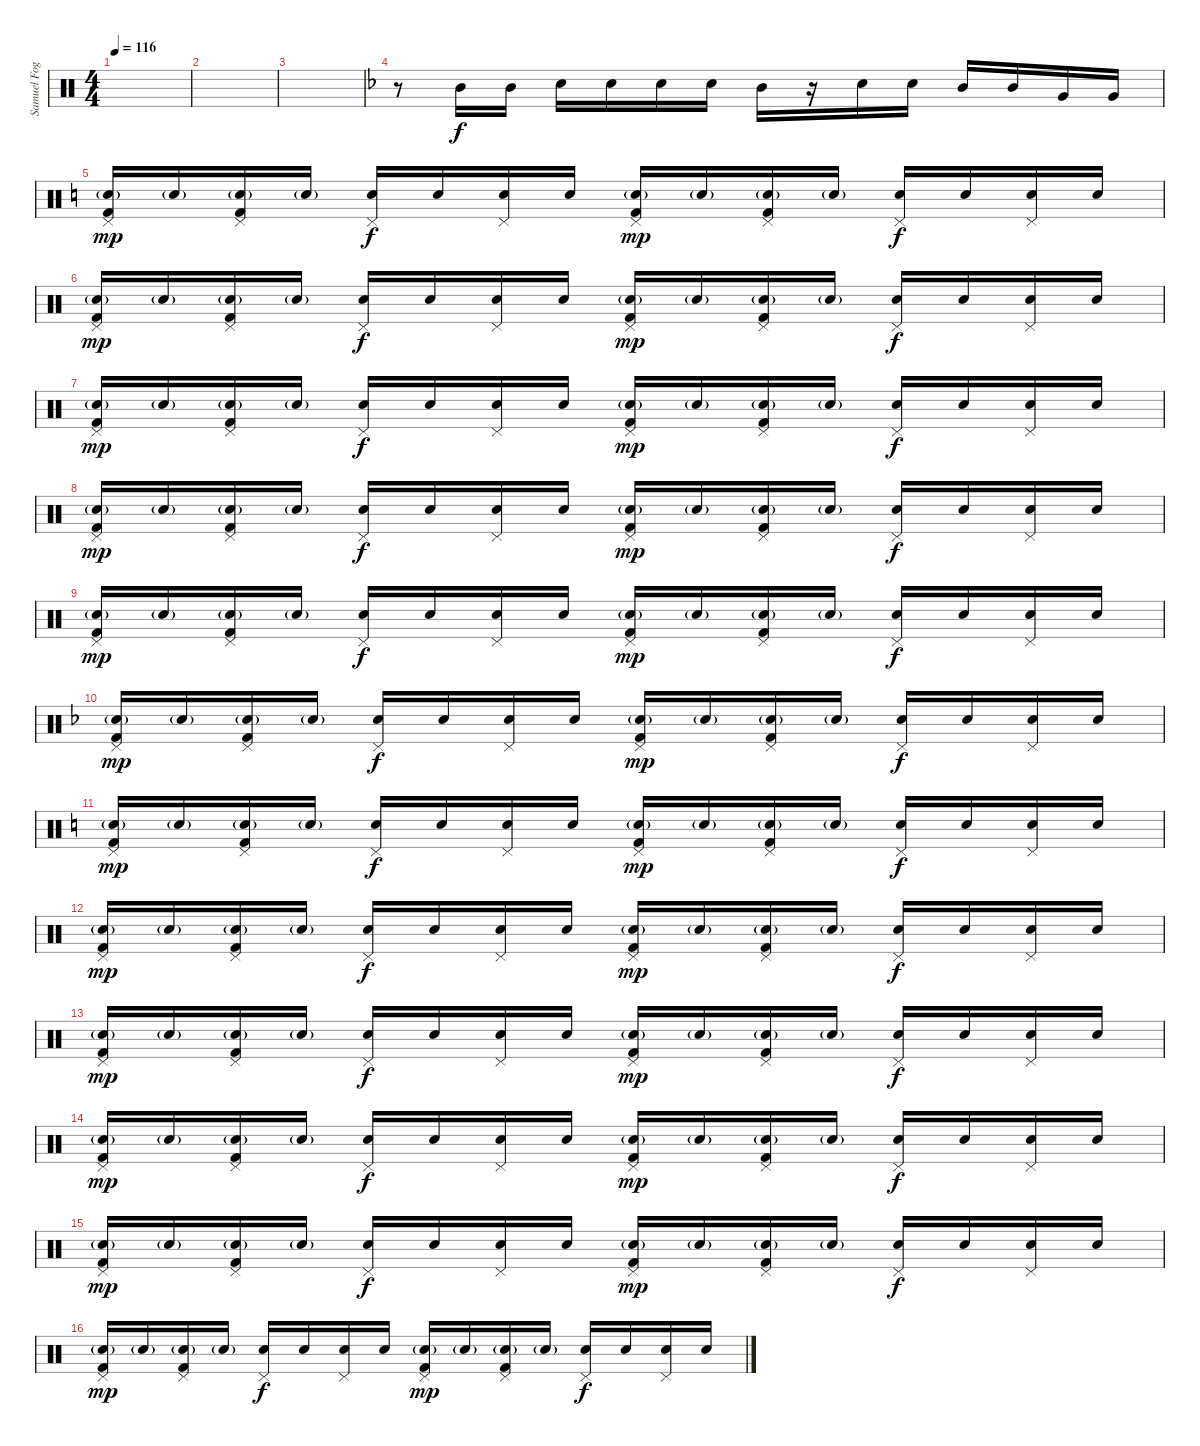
\track ("Samuel Fogarino" "Samuel Fog") {instrument percussion}
\staff {score}
\articulation defaults
\ts (4 4)
\tempo 116
\clef neutral
\ks c
|
|
|
\ks f
r.8 "Mid Tom (hit)".16 "Mid Tom (hit)".16 "Snare (hit) 2".16 "Snare (hit) 2".16 "Snare (hit) 2".16 "Snare (hit) 2".16 "Mid Tom (hit)".16 r.16 "Snare (hit) 2".16 "Snare (hit) 2".16 "Mid Tom (hit)".16 "Mid Tom (hit)".16 "Very Low Tom (hit)".16 "Very Low Tom (hit)".16 |
\ks c
("Pedal Hi-Hat (hit)" "Snare (hit) 2"{g} "Kick (hit) 2").16{dy mp} "Snare (hit) 2"{g}.16 ("Pedal Hi-Hat (hit)" "Snare (hit) 2"{g} "Kick (hit) 2").16 "Snare (hit) 2"{g}.16 ("Pedal Hi-Hat (hit)" "Snare (hit) 2").16{dy f} "Snare (hit) 2".16 ("Pedal Hi-Hat (hit)" "Snare (hit) 2").16 "Snare (hit) 2".16 ("Pedal Hi-Hat (hit)" "Snare (hit) 2"{g} "Kick (hit) 2").16{dy mp} "Snare (hit) 2"{g}.16 ("Pedal Hi-Hat (hit)" "Snare (hit) 2"{g} "Kick (hit) 2").16 "Snare (hit) 2"{g}.16 ("Pedal Hi-Hat (hit)" "Snare (hit) 2").16{dy f} "Snare (hit) 2".16 ("Pedal Hi-Hat (hit)" "Snare (hit) 2").16 "Snare (hit) 2".16 |
("Pedal Hi-Hat (hit)" "Snare (hit) 2"{g} "Kick (hit) 2").16{dy mp} "Snare (hit) 2"{g}.16 ("Pedal Hi-Hat (hit)" "Snare (hit) 2"{g} "Kick (hit) 2").16 "Snare (hit) 2"{g}.16 ("Pedal Hi-Hat (hit)" "Snare (hit) 2").16{dy f} "Snare (hit) 2".16 ("Pedal Hi-Hat (hit)" "Snare (hit) 2").16 "Snare (hit) 2".16 ("Pedal Hi-Hat (hit)" "Snare (hit) 2"{g} "Kick (hit) 2").16{dy mp} "Snare (hit) 2"{g}.16 ("Pedal Hi-Hat (hit)" "Snare (hit) 2"{g} "Kick (hit) 2").16 "Snare (hit) 2"{g}.16 ("Pedal Hi-Hat (hit)" "Snare (hit) 2").16{dy f} "Snare (hit) 2".16 ("Pedal Hi-Hat (hit)" "Snare (hit) 2").16 "Snare (hit) 2".16 |
("Pedal Hi-Hat (hit)" "Snare (hit) 2"{g} "Kick (hit) 2").16{dy mp} "Snare (hit) 2"{g}.16 ("Pedal Hi-Hat (hit)" "Snare (hit) 2"{g} "Kick (hit) 2").16 "Snare (hit) 2"{g}.16 ("Pedal Hi-Hat (hit)" "Snare (hit) 2").16{dy f} "Snare (hit) 2".16 ("Pedal Hi-Hat (hit)" "Snare (hit) 2").16 "Snare (hit) 2".16 ("Pedal Hi-Hat (hit)" "Snare (hit) 2"{g} "Kick (hit) 2").16{dy mp} "Snare (hit) 2"{g}.16 ("Pedal Hi-Hat (hit)" "Snare (hit) 2"{g} "Kick (hit) 2").16 "Snare (hit) 2"{g}.16 ("Pedal Hi-Hat (hit)" "Snare (hit) 2").16{dy f} "Snare (hit) 2".16 ("Pedal Hi-Hat (hit)" "Snare (hit) 2").16 "Snare (hit) 2".16 |
("Pedal Hi-Hat (hit)" "Snare (hit) 2"{g} "Kick (hit) 2").16{dy mp} "Snare (hit) 2"{g}.16 ("Pedal Hi-Hat (hit)" "Snare (hit) 2"{g} "Kick (hit) 2").16 "Snare (hit) 2"{g}.16 ("Pedal Hi-Hat (hit)" "Snare (hit) 2").16{dy f} "Snare (hit) 2".16 ("Pedal Hi-Hat (hit)" "Snare (hit) 2").16 "Snare (hit) 2".16 ("Pedal Hi-Hat (hit)" "Snare (hit) 2"{g} "Kick (hit) 2").16{dy mp} "Snare (hit) 2"{g}.16 ("Pedal Hi-Hat (hit)" "Snare (hit) 2"{g} "Kick (hit) 2").16 "Snare (hit) 2"{g}.16 ("Pedal Hi-Hat (hit)" "Snare (hit) 2").16{dy f} "Snare (hit) 2".16 ("Pedal Hi-Hat (hit)" "Snare (hit) 2").16 "Snare (hit) 2".16 |
("Pedal Hi-Hat (hit)" "Snare (hit) 2"{g} "Kick (hit) 2").16{dy mp} "Snare (hit) 2"{g}.16 ("Pedal Hi-Hat (hit)" "Snare (hit) 2"{g} "Kick (hit) 2").16 "Snare (hit) 2"{g}.16 ("Pedal Hi-Hat (hit)" "Snare (hit) 2").16{dy f} "Snare (hit) 2".16 ("Pedal Hi-Hat (hit)" "Snare (hit) 2").16 "Snare (hit) 2".16 ("Pedal Hi-Hat (hit)" "Snare (hit) 2"{g} "Kick (hit) 2").16{dy mp} "Snare (hit) 2"{g}.16 ("Pedal Hi-Hat (hit)" "Snare (hit) 2"{g} "Kick (hit) 2").16 "Snare (hit) 2"{g}.16 ("Pedal Hi-Hat (hit)" "Snare (hit) 2").16{dy f} "Snare (hit) 2".16 ("Pedal Hi-Hat (hit)" "Snare (hit) 2").16 "Snare (hit) 2".16 |
\ks f
("Pedal Hi-Hat (hit)" "Snare (hit) 2"{g} "Kick (hit) 2").16{dy mp} "Snare (hit) 2"{g}.16 ("Pedal Hi-Hat (hit)" "Snare (hit) 2"{g} "Kick (hit) 2").16 "Snare (hit) 2"{g}.16 ("Pedal Hi-Hat (hit)" "Snare (hit) 2").16{dy f} "Snare (hit) 2".16 ("Pedal Hi-Hat (hit)" "Snare (hit) 2").16 "Snare (hit) 2".16 ("Pedal Hi-Hat (hit)" "Snare (hit) 2"{g} "Kick (hit) 2").16{dy mp} "Snare (hit) 2"{g}.16 ("Pedal Hi-Hat (hit)" "Snare (hit) 2"{g} "Kick (hit) 2").16 "Snare (hit) 2"{g}.16 ("Pedal Hi-Hat (hit)" "Snare (hit) 2").16{dy f} "Snare (hit) 2".16 ("Pedal Hi-Hat (hit)" "Snare (hit) 2").16 "Snare (hit) 2".16 |
\ks c
("Pedal Hi-Hat (hit)" "Snare (hit) 2"{g} "Kick (hit) 2").16{dy mp} "Snare (hit) 2"{g}.16 ("Pedal Hi-Hat (hit)" "Snare (hit) 2"{g} "Kick (hit) 2").16 "Snare (hit) 2"{g}.16 ("Pedal Hi-Hat (hit)" "Snare (hit) 2").16{dy f} "Snare (hit) 2".16 ("Pedal Hi-Hat (hit)" "Snare (hit) 2").16 "Snare (hit) 2".16 ("Pedal Hi-Hat (hit)" "Snare (hit) 2"{g} "Kick (hit) 2").16{dy mp} "Snare (hit) 2"{g}.16 ("Pedal Hi-Hat (hit)" "Snare (hit) 2"{g} "Kick (hit) 2").16 "Snare (hit) 2"{g}.16 ("Pedal Hi-Hat (hit)" "Snare (hit) 2").16{dy f} "Snare (hit) 2".16 ("Pedal Hi-Hat (hit)" "Snare (hit) 2").16 "Snare (hit) 2".16 |
("Pedal Hi-Hat (hit)" "Snare (hit) 2"{g} "Kick (hit) 2").16{dy mp} "Snare (hit) 2"{g}.16 ("Pedal Hi-Hat (hit)" "Snare (hit) 2"{g} "Kick (hit) 2").16 "Snare (hit) 2"{g}.16 ("Pedal Hi-Hat (hit)" "Snare (hit) 2").16{dy f} "Snare (hit) 2".16 ("Pedal Hi-Hat (hit)" "Snare (hit) 2").16 "Snare (hit) 2".16 ("Pedal Hi-Hat (hit)" "Snare (hit) 2"{g} "Kick (hit) 2").16{dy mp} "Snare (hit) 2"{g}.16 ("Pedal Hi-Hat (hit)" "Snare (hit) 2"{g} "Kick (hit) 2").16 "Snare (hit) 2"{g}.16 ("Pedal Hi-Hat (hit)" "Snare (hit) 2").16{dy f} "Snare (hit) 2".16 ("Pedal Hi-Hat (hit)" "Snare (hit) 2").16 "Snare (hit) 2".16 |
("Pedal Hi-Hat (hit)" "Snare (hit) 2"{g} "Kick (hit) 2").16{dy mp} "Snare (hit) 2"{g}.16 ("Pedal Hi-Hat (hit)" "Snare (hit) 2"{g} "Kick (hit) 2").16 "Snare (hit) 2"{g}.16 ("Pedal Hi-Hat (hit)" "Snare (hit) 2").16{dy f} "Snare (hit) 2".16 ("Pedal Hi-Hat (hit)" "Snare (hit) 2").16 "Snare (hit) 2".16 ("Pedal Hi-Hat (hit)" "Snare (hit) 2"{g} "Kick (hit) 2").16{dy mp} "Snare (hit) 2"{g}.16 ("Pedal Hi-Hat (hit)" "Snare (hit) 2"{g} "Kick (hit) 2").16 "Snare (hit) 2"{g}.16 ("Pedal Hi-Hat (hit)" "Snare (hit) 2").16{dy f} "Snare (hit) 2".16 ("Pedal Hi-Hat (hit)" "Snare (hit) 2").16 "Snare (hit) 2".16 |
("Pedal Hi-Hat (hit)" "Snare (hit) 2"{g} "Kick (hit) 2").16{dy mp} "Snare (hit) 2"{g}.16 ("Pedal Hi-Hat (hit)" "Snare (hit) 2"{g} "Kick (hit) 2").16 "Snare (hit) 2"{g}.16 ("Pedal Hi-Hat (hit)" "Snare (hit) 2").16{dy f} "Snare (hit) 2".16 ("Pedal Hi-Hat (hit)" "Snare (hit) 2").16 "Snare (hit) 2".16 ("Pedal Hi-Hat (hit)" "Snare (hit) 2"{g} "Kick (hit) 2").16{dy mp} "Snare (hit) 2"{g}.16 ("Pedal Hi-Hat (hit)" "Snare (hit) 2"{g} "Kick (hit) 2").16 "Snare (hit) 2"{g}.16 ("Pedal Hi-Hat (hit)" "Snare (hit) 2").16{dy f} "Snare (hit) 2".16 ("Pedal Hi-Hat (hit)" "Snare (hit) 2").16 "Snare (hit) 2".16 |
("Pedal Hi-Hat (hit)" "Snare (hit) 2"{g} "Kick (hit) 2").16{dy mp} "Snare (hit) 2"{g}.16 ("Pedal Hi-Hat (hit)" "Snare (hit) 2"{g} "Kick (hit) 2").16 "Snare (hit) 2"{g}.16 ("Pedal Hi-Hat (hit)" "Snare (hit) 2").16{dy f} "Snare (hit) 2".16 ("Pedal Hi-Hat (hit)" "Snare (hit) 2").16 "Snare (hit) 2".16 ("Pedal Hi-Hat (hit)" "Snare (hit) 2"{g} "Kick (hit) 2").16{dy mp} "Snare (hit) 2"{g}.16 ("Pedal Hi-Hat (hit)" "Snare (hit) 2"{g} "Kick (hit) 2").16 "Snare (hit) 2"{g}.16 ("Pedal Hi-Hat (hit)" "Snare (hit) 2").16{dy f} "Snare (hit) 2".16 ("Pedal Hi-Hat (hit)" "Snare (hit) 2").16 "Snare (hit) 2".16 |
("Pedal Hi-Hat (hit)" "Snare (hit) 2"{g} "Kick (hit) 2").16{dy mp} "Snare (hit) 2"{g}.16 ("Pedal Hi-Hat (hit)" "Snare (hit) 2"{g} "Kick (hit) 2").16 "Snare (hit) 2"{g}.16 ("Pedal Hi-Hat (hit)" "Snare (hit) 2").16{dy f} "Snare (hit) 2".16 ("Pedal Hi-Hat (hit)" "Snare (hit) 2").16 "Snare (hit) 2".16 ("Pedal Hi-Hat (hit)" "Snare (hit) 2"{g} "Kick (hit) 2").16{dy mp} "Snare (hit) 2"{g}.16 ("Pedal Hi-Hat (hit)" "Snare (hit) 2"{g} "Kick (hit) 2").16 "Snare (hit) 2"{g}.16 ("Pedal Hi-Hat (hit)" "Snare (hit) 2").16{dy f} "Snare (hit) 2".16 ("Pedal Hi-Hat (hit)" "Snare (hit) 2").16 "Snare (hit) 2".16
